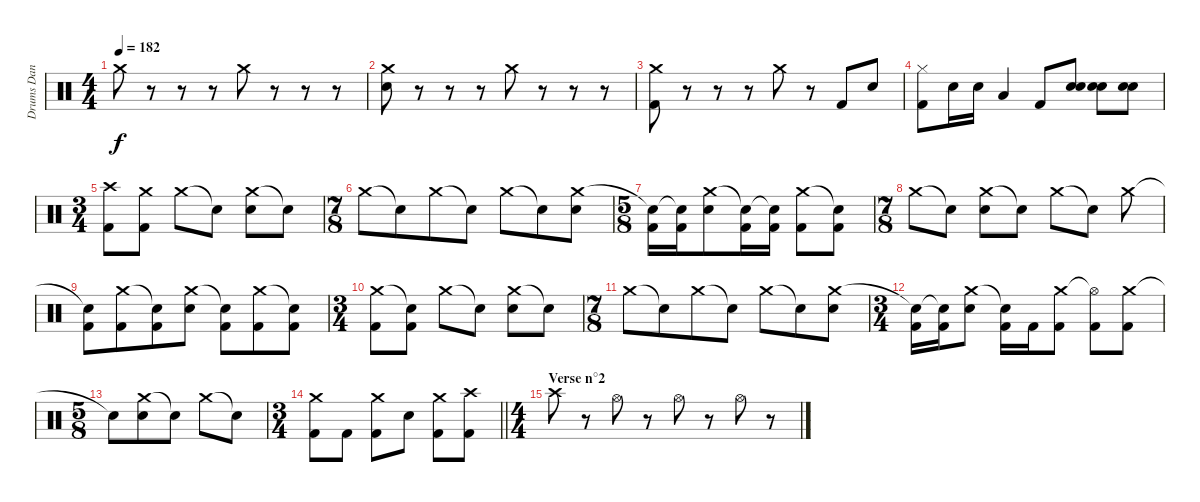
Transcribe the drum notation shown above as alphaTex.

\track ("Drums Dan Searle" "Drums Dan ") {instrument percussion}
\staff {score}
\articulation defaults
\ts (4 4)
\tempo 182
\clef neutral
\ks c "Crash medium (hit)".8{dy f}
r.8 r.8 r.8 "Crash medium (hit)".8 r.8 r.8 r.8 |
("Crash medium (hit)" "Electric Snare (hit)").8 r.8 r.8 r.8 "Crash medium (hit)".8 r.8 r.8 r.8 |
("Crash medium (hit)" "Kick (hit) 2").8 r.8 r.8 r.8 "Crash medium (hit)".8 r.8 "Kick (hit) 2".8 "Electric Snare (hit)".8 |
("Hi-Hat (closed)" "Kick (hit) 2").8 "Electric Snare (hit)".16 "Electric Snare (hit)".16 "Low Tom (hit)".4 "Kick (hit) 2".8 ("Electric Snare (hit)" "Electric Snare (hit)").8 ("Electric Snare (hit)" "Electric Snare (hit)").8 ("Electric Snare (hit)" "Electric Snare (hit)").8 |
\ts (3 4)
("Crash high (hit)" "Kick (hit) 2").8 ("Crash medium (hit)" "Kick (hit) 2").8 "Crash medium (hit)".8 "Snare (hit)"{t}.8 ("Crash medium (hit)" "Electric Snare (hit)").8 "Snare (hit)"{t}.8 |
\ts (7 8)
"Crash medium (hit)".8 "Snare (hit)"{t}.8 "Crash medium (hit)".8 "Snare (hit)"{t}.8 "Crash medium (hit)".8 "Snare (hit)"{t}.8 ("Crash medium (hit)" "Electric Snare (hit)").8 |
\ts (5 8)
("Snare (hit)"{t} "Kick (hit) 2").16 ("Snare (hit)"{t} "Kick (hit) 2").16 ("Crash medium (hit)" "Electric Snare (hit)").8 ("Snare (hit)"{t} "Kick (hit) 2").16 ("Snare (hit)"{t} "Kick (hit) 2").16 ("Crash medium (hit)" "Kick (hit) 2").8 ("Snare (hit)"{t} "Kick (hit) 2").8 |
\ts (7 8)
"Crash medium (hit)".8 "Snare (hit)"{t}.8{beam split} ("Crash medium (hit)" "Electric Snare (hit)").8{beam merge} "Snare (hit)"{t}.8{beam split} "Crash medium (hit)".8{beam merge} "Snare (hit)"{t}.8{beam split} "Crash medium (hit)".8 |
("Snare (hit)"{t} "Kick (hit) 2").8 ("Crash medium (hit)" "Kick (hit) 2").8 ("Snare (hit)"{t} "Kick (hit) 2").8 ("Crash medium (hit)" "Electric Snare (hit)").8 ("Snare (hit)"{t} "Kick (hit) 2").8 ("Crash medium (hit)" "Kick (hit) 2").8 ("Snare (hit)"{t} "Kick (hit) 2").8 |
\ts (3 4)
("Crash medium (hit)" "Kick (hit) 2").8 ("Snare (hit)"{t} "Kick (hit) 2").8 "Crash medium (hit)".8 "Snare (hit)"{t}.8 ("Crash medium (hit)" "Electric Snare (hit)").8 "Snare (hit)"{t}.8 |
\ts (7 8)
"Crash medium (hit)".8 "Snare (hit)"{t}.8 "Crash medium (hit)".8 "Snare (hit)"{t}.8 "Crash medium (hit)".8 "Snare (hit)"{t}.8 ("Crash medium (hit)" "Electric Snare (hit)").8 |
\ts (3 4)
("Snare (hit)"{t} "Kick (hit) 2").16 ("Snare (hit)"{t} "Kick (hit) 2").16 ("Crash medium (hit)" "Electric Snare (hit)").8 ("Snare (hit)"{t} "Kick (hit) 2").16 "Kick (hit) 2".16 ("Crash medium (hit)" "Kick (hit) 2").8 ("Hi-Hat (open)"{t} "Kick (hit) 2").8 ("Crash medium (hit)" "Kick (hit) 2").8 |
\ts (5 8)
"Snare (hit)"{t}.8 ("Crash medium (hit)" "Electric Snare (hit)").8 "Snare (hit)"{t}.8 "Crash medium (hit)".8 "Snare (hit)"{t}.8 |
\ts (3 4)
\barLineRight lightlight
("Crash medium (hit)" "Kick (hit) 2").8 "Kick (hit) 2".8 ("Crash medium (hit)" "Kick (hit) 2").8 "Electric Snare (hit)".8 ("Crash medium (hit)" "Kick (hit) 2").8 ("Crash high (hit)" "Kick (hit) 2").8 |
\ts (4 4)
\section ("" "Verse n°2")
"Crash high (hit)".8 r.8 "Hi-Hat (open)".8 r.8 "Hi-Hat (open)".8 r.8 "Hi-Hat (open)".8 r.8
